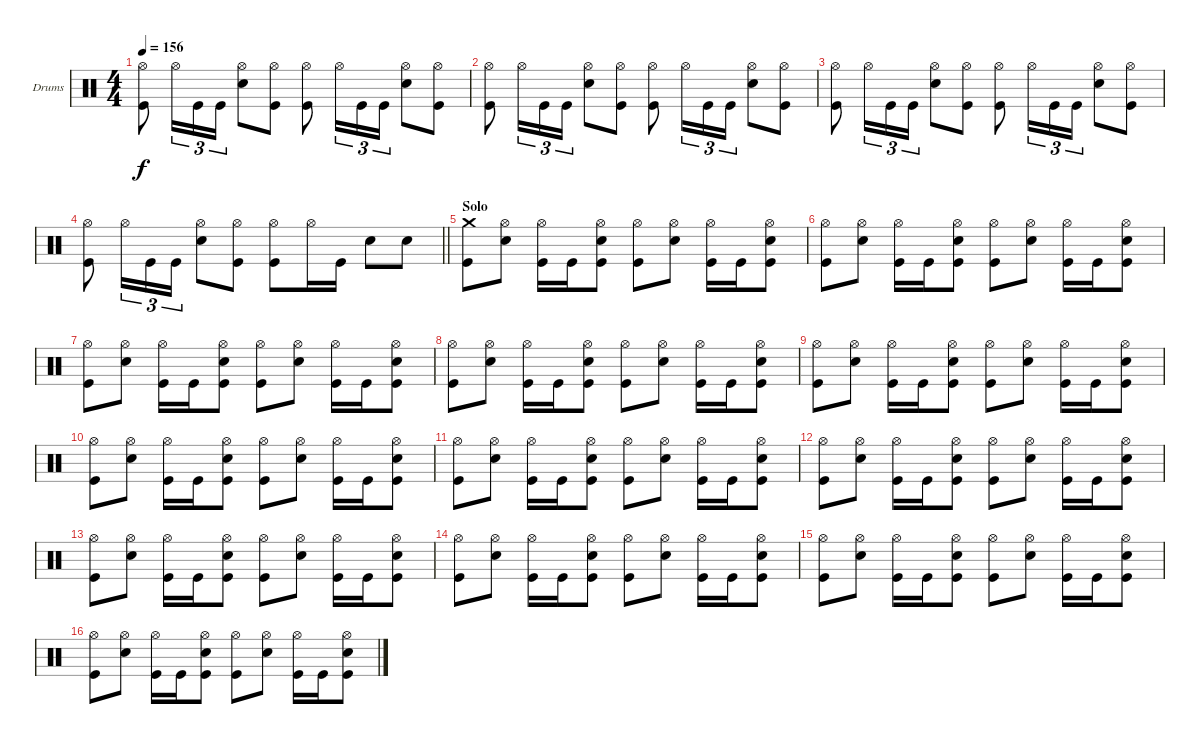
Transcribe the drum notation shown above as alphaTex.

\bracketExtendMode groupsimilarinstruments
\firstSystemTrackNameOrientation horizontal
\otherSystemsTrackNameOrientation horizontal
\track ("Drums" "Drums") {instrument percussion}
\staff {score}
\articulation defaults
\ts (4 4)
\tempo 156
\clef neutral
\ks c
("Hi-Hat (open)" "Kick (hit)").8{dy f} "Hi-Hat (open)".16{tu (3 2)} "Kick (hit)".16{tu (3 2)} "Kick (hit)".16{tu (3 2)} ("Hi-Hat (open)" "Snare (hit) 2").8 ("Hi-Hat (open)" "Kick (hit)").8 ("Hi-Hat (open)" "Kick (hit)").8 "Hi-Hat (open)".16{tu (3 2)} "Kick (hit)".16{tu (3 2)} "Kick (hit)".16{tu (3 2)} ("Hi-Hat (open)" "Snare (hit) 2").8 ("Hi-Hat (open)" "Kick (hit)").8 |
("Hi-Hat (open)" "Kick (hit)").8 "Hi-Hat (open)".16{tu (3 2)} "Kick (hit)".16{tu (3 2)} "Kick (hit)".16{tu (3 2)} ("Hi-Hat (open)" "Snare (hit) 2").8 ("Hi-Hat (open)" "Kick (hit)").8 ("Hi-Hat (open)" "Kick (hit)").8 "Hi-Hat (open)".16{tu (3 2)} "Kick (hit)".16{tu (3 2)} "Kick (hit)".16{tu (3 2)} ("Hi-Hat (open)" "Snare (hit) 2").8 ("Hi-Hat (open)" "Kick (hit)").8 |
("Hi-Hat (open)" "Kick (hit)").8 "Hi-Hat (open)".16{tu (3 2)} "Kick (hit)".16{tu (3 2)} "Kick (hit)".16{tu (3 2)} ("Hi-Hat (open)" "Snare (hit) 2").8 ("Hi-Hat (open)" "Kick (hit)").8 ("Hi-Hat (open)" "Kick (hit)").8 "Hi-Hat (open)".16{tu (3 2)} "Kick (hit)".16{tu (3 2)} "Kick (hit)".16{tu (3 2)} ("Hi-Hat (open)" "Snare (hit) 2").8 ("Hi-Hat (open)" "Kick (hit)").8 |
\barLineRight lightlight
("Hi-Hat (open)" "Kick (hit)").8 "Hi-Hat (open)".16{tu (3 2)} "Kick (hit)".16{tu (3 2)} "Kick (hit)".16{tu (3 2)} ("Hi-Hat (open)" "Snare (hit) 2").8 ("Hi-Hat (open)" "Kick (hit)").8 ("Hi-Hat (open)" "Kick (hit)").8 "Hi-Hat (open)".16 "Kick (hit)".16 "Snare (hit) 2".8 "Snare (hit) 2".8 |
\section ("" "Solo")
("Crash medium (hit)" "Kick (hit)").8 ("Hi-Hat (open)" "Snare (hit) 2").8 ("Hi-Hat (open)" "Kick (hit)").16 "Kick (hit)".16 ("Hi-Hat (open)" "Snare (hit) 2" "Kick (hit)").8 ("Hi-Hat (open)" "Kick (hit)").8 ("Hi-Hat (open)" "Snare (hit) 2").8 ("Hi-Hat (open)" "Kick (hit)").16 "Kick (hit)".16 ("Hi-Hat (open)" "Snare (hit) 2" "Kick (hit)").8 |
("Hi-Hat (open)" "Kick (hit)").8 ("Hi-Hat (open)" "Snare (hit) 2").8 ("Hi-Hat (open)" "Kick (hit)").16 "Kick (hit)".16 ("Hi-Hat (open)" "Snare (hit) 2" "Kick (hit)").8 ("Hi-Hat (open)" "Kick (hit)").8 ("Hi-Hat (open)" "Snare (hit) 2").8 ("Hi-Hat (open)" "Kick (hit)").16 "Kick (hit)".16 ("Hi-Hat (open)" "Snare (hit) 2" "Kick (hit)").8 |
("Hi-Hat (open)" "Kick (hit)").8 ("Hi-Hat (open)" "Snare (hit) 2").8 ("Hi-Hat (open)" "Kick (hit)").16 "Kick (hit)".16 ("Hi-Hat (open)" "Snare (hit) 2" "Kick (hit)").8 ("Hi-Hat (open)" "Kick (hit)").8 ("Hi-Hat (open)" "Snare (hit) 2").8 ("Hi-Hat (open)" "Kick (hit)").16 "Kick (hit)".16 ("Hi-Hat (open)" "Snare (hit) 2" "Kick (hit)").8 |
("Hi-Hat (open)" "Kick (hit)").8 ("Hi-Hat (open)" "Snare (hit) 2").8 ("Hi-Hat (open)" "Kick (hit)").16 "Kick (hit)".16 ("Hi-Hat (open)" "Snare (hit) 2" "Kick (hit)").8 ("Hi-Hat (open)" "Kick (hit)").8 ("Hi-Hat (open)" "Snare (hit) 2").8 ("Hi-Hat (open)" "Kick (hit)").16 "Kick (hit)".16 ("Hi-Hat (open)" "Snare (hit) 2" "Kick (hit)").8 |
("Hi-Hat (open)" "Kick (hit)").8 ("Hi-Hat (open)" "Snare (hit) 2").8 ("Hi-Hat (open)" "Kick (hit)").16 "Kick (hit)".16 ("Hi-Hat (open)" "Snare (hit) 2" "Kick (hit)").8 ("Hi-Hat (open)" "Kick (hit)").8 ("Hi-Hat (open)" "Snare (hit) 2").8 ("Hi-Hat (open)" "Kick (hit)").16 "Kick (hit)".16 ("Hi-Hat (open)" "Snare (hit) 2" "Kick (hit)").8 |
("Hi-Hat (open)" "Kick (hit)").8 ("Hi-Hat (open)" "Snare (hit) 2").8 ("Hi-Hat (open)" "Kick (hit)").16 "Kick (hit)".16 ("Hi-Hat (open)" "Snare (hit) 2" "Kick (hit)").8 ("Hi-Hat (open)" "Kick (hit)").8 ("Hi-Hat (open)" "Snare (hit) 2").8 ("Hi-Hat (open)" "Kick (hit)").16 "Kick (hit)".16 ("Hi-Hat (open)" "Snare (hit) 2" "Kick (hit)").8 |
("Hi-Hat (open)" "Kick (hit)").8 ("Hi-Hat (open)" "Snare (hit) 2").8 ("Hi-Hat (open)" "Kick (hit)").16 "Kick (hit)".16 ("Hi-Hat (open)" "Snare (hit) 2" "Kick (hit)").8 ("Hi-Hat (open)" "Kick (hit)").8 ("Hi-Hat (open)" "Snare (hit) 2").8 ("Hi-Hat (open)" "Kick (hit)").16 "Kick (hit)".16 ("Hi-Hat (open)" "Snare (hit) 2" "Kick (hit)").8 |
("Hi-Hat (open)" "Kick (hit)").8 ("Hi-Hat (open)" "Snare (hit) 2").8 ("Hi-Hat (open)" "Kick (hit)").16 "Kick (hit)".16 ("Hi-Hat (open)" "Snare (hit) 2" "Kick (hit)").8 ("Hi-Hat (open)" "Kick (hit)").8 ("Hi-Hat (open)" "Snare (hit) 2").8 ("Hi-Hat (open)" "Kick (hit)").16 "Kick (hit)".16 ("Hi-Hat (open)" "Snare (hit) 2" "Kick (hit)").8 |
("Hi-Hat (open)" "Kick (hit)").8 ("Hi-Hat (open)" "Snare (hit) 2").8 ("Hi-Hat (open)" "Kick (hit)").16 "Kick (hit)".16 ("Hi-Hat (open)" "Snare (hit) 2" "Kick (hit)").8 ("Hi-Hat (open)" "Kick (hit)").8 ("Hi-Hat (open)" "Snare (hit) 2").8 ("Hi-Hat (open)" "Kick (hit)").16 "Kick (hit)".16 ("Hi-Hat (open)" "Snare (hit) 2" "Kick (hit)").8 |
("Hi-Hat (open)" "Kick (hit)").8 ("Hi-Hat (open)" "Snare (hit) 2").8 ("Hi-Hat (open)" "Kick (hit)").16 "Kick (hit)".16 ("Hi-Hat (open)" "Snare (hit) 2" "Kick (hit)").8 ("Hi-Hat (open)" "Kick (hit)").8 ("Hi-Hat (open)" "Snare (hit) 2").8 ("Hi-Hat (open)" "Kick (hit)").16 "Kick (hit)".16 ("Hi-Hat (open)" "Snare (hit) 2" "Kick (hit)").8 |
("Hi-Hat (open)" "Kick (hit)").8 ("Hi-Hat (open)" "Snare (hit) 2").8 ("Hi-Hat (open)" "Kick (hit)").16 "Kick (hit)".16 ("Hi-Hat (open)" "Snare (hit) 2" "Kick (hit)").8 ("Hi-Hat (open)" "Kick (hit)").8 ("Hi-Hat (open)" "Snare (hit) 2").8 ("Hi-Hat (open)" "Kick (hit)").16 "Kick (hit)".16 ("Hi-Hat (open)" "Snare (hit) 2" "Kick (hit)").8 |
("Hi-Hat (open)" "Kick (hit)").8 ("Hi-Hat (open)" "Snare (hit) 2").8 ("Hi-Hat (open)" "Kick (hit)").16 "Kick (hit)".16 ("Hi-Hat (open)" "Snare (hit) 2" "Kick (hit)").8 ("Hi-Hat (open)" "Kick (hit)").8 ("Hi-Hat (open)" "Snare (hit) 2").8 ("Hi-Hat (open)" "Kick (hit)").16 "Kick (hit)".16 ("Hi-Hat (open)" "Snare (hit) 2" "Kick (hit)").8
